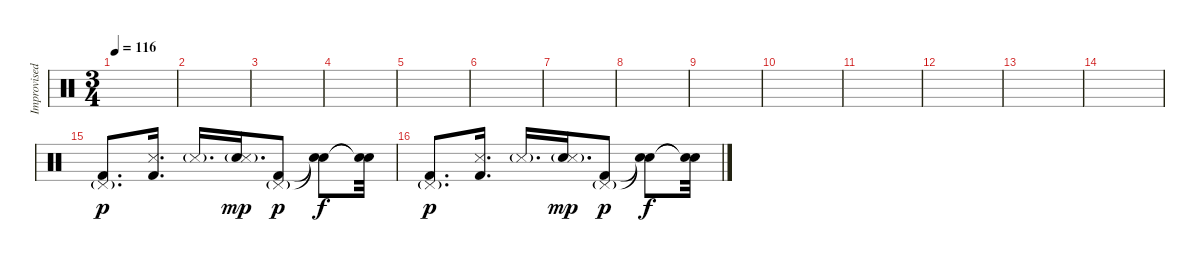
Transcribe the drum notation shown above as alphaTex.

\track ("Improvised Drums" "Improvised") {instrument percussion}
\staff {score}
\articulation defaults
\ts (3 4)
\tempo 116
\clef neutral
\ks c
|
|
|
|
|
|
|
|
|
|
|
|
|
|
("Pedal Hi-Hat (hit)"{g} "Kick (hit) 2").8{d dy p} ("Metronome (hit)" "Kick (hit) 2").16{d} "Metronome (hit)"{g}.16{d} ("Electric Snare (hit)"{g} "Metronome (hit)").16{d dy mp} ("Pedal Hi-Hat (hit)"{g} "Kick (hit) 2").8{dy p} ("Snare (hit)"{t} "Snare (hit)"{t}).8{dy f} ("Snare (hit)"{t} "Snare (hit)"{t}).32 |
("Pedal Hi-Hat (hit)"{g} "Kick (hit) 2").8{d dy p} ("Metronome (hit)" "Kick (hit) 2").16{d} "Metronome (hit)"{g}.16{d} ("Electric Snare (hit)"{g} "Metronome (hit)").16{d dy mp} ("Pedal Hi-Hat (hit)"{g} "Kick (hit) 2").8{dy p} ("Snare (hit)"{t} "Snare (hit)"{t}).8{dy f} ("Snare (hit)"{t} "Snare (hit)"{t}).32
